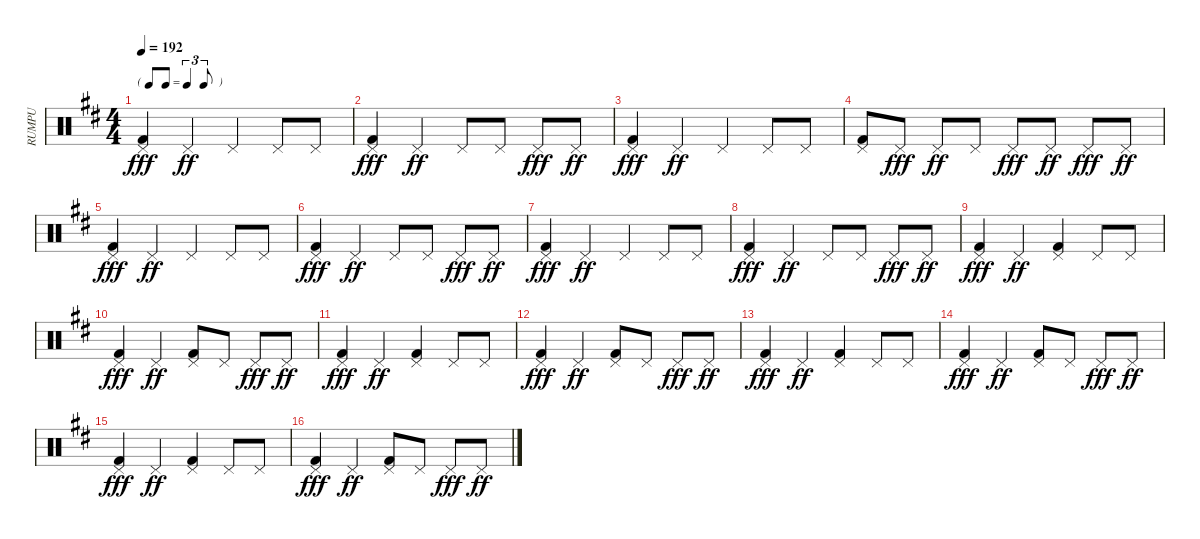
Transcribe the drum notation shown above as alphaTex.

\track ("RUMPU" "RUMPU") {instrument percussion}
\staff {score}
\articulation defaults
\ts (4 4)
\tf triplet8th
\tempo 192
\clef neutral
\ks d
("Pedal Hi-Hat (hit)" "Kick (hit) 2").4{dy fff} "Pedal Hi-Hat (hit)".4{dy ff} "Pedal Hi-Hat (hit)".4 "Pedal Hi-Hat (hit)".8 "Pedal Hi-Hat (hit)".8 |
("Pedal Hi-Hat (hit)" "Kick (hit) 2").4{dy fff} "Pedal Hi-Hat (hit)".4{dy ff} "Pedal Hi-Hat (hit)".8 "Pedal Hi-Hat (hit)".8 "Pedal Hi-Hat (hit)".8{dy fff} "Pedal Hi-Hat (hit)".8{dy ff} |
("Pedal Hi-Hat (hit)" "Kick (hit) 2").4{dy fff} "Pedal Hi-Hat (hit)".4{dy ff} "Pedal Hi-Hat (hit)".4 "Pedal Hi-Hat (hit)".8 "Pedal Hi-Hat (hit)".8 |
("Pedal Hi-Hat (hit)" "Kick (hit) 2").8 "Pedal Hi-Hat (hit)".8{dy fff} "Pedal Hi-Hat (hit)".8{dy ff} "Pedal Hi-Hat (hit)".8 "Pedal Hi-Hat (hit)".8{dy fff} "Pedal Hi-Hat (hit)".8{dy ff} "Pedal Hi-Hat (hit)".8{dy fff} "Pedal Hi-Hat (hit)".8{dy ff} |
("Pedal Hi-Hat (hit)" "Kick (hit) 2").4{dy fff} "Pedal Hi-Hat (hit)".4{dy ff} "Pedal Hi-Hat (hit)".4 "Pedal Hi-Hat (hit)".8 "Pedal Hi-Hat (hit)".8 |
("Pedal Hi-Hat (hit)" "Kick (hit) 2").4{dy fff} "Pedal Hi-Hat (hit)".4{dy ff} "Pedal Hi-Hat (hit)".8 "Pedal Hi-Hat (hit)".8 "Pedal Hi-Hat (hit)".8{dy fff} "Pedal Hi-Hat (hit)".8{dy ff} |
("Pedal Hi-Hat (hit)" "Kick (hit) 2").4{dy fff} "Pedal Hi-Hat (hit)".4{dy ff} "Pedal Hi-Hat (hit)".4 "Pedal Hi-Hat (hit)".8 "Pedal Hi-Hat (hit)".8 |
("Pedal Hi-Hat (hit)" "Kick (hit) 2").4{dy fff} "Pedal Hi-Hat (hit)".4{dy ff} "Pedal Hi-Hat (hit)".8 "Pedal Hi-Hat (hit)".8 "Pedal Hi-Hat (hit)".8{dy fff} "Pedal Hi-Hat (hit)".8{dy ff} |
("Pedal Hi-Hat (hit)" "Kick (hit) 2").4{dy fff} "Pedal Hi-Hat (hit)".4{dy ff} ("Pedal Hi-Hat (hit)" "Kick (hit) 2").4 "Pedal Hi-Hat (hit)".8 "Pedal Hi-Hat (hit)".8 |
("Pedal Hi-Hat (hit)" "Kick (hit) 2").4{dy fff} "Pedal Hi-Hat (hit)".4{dy ff} ("Pedal Hi-Hat (hit)" "Kick (hit) 2").8 "Pedal Hi-Hat (hit)".8 "Pedal Hi-Hat (hit)".8{dy fff} "Pedal Hi-Hat (hit)".8{dy ff} |
("Pedal Hi-Hat (hit)" "Kick (hit) 2").4{dy fff} "Pedal Hi-Hat (hit)".4{dy ff} ("Pedal Hi-Hat (hit)" "Kick (hit) 2").4 "Pedal Hi-Hat (hit)".8 "Pedal Hi-Hat (hit)".8 |
("Pedal Hi-Hat (hit)" "Kick (hit) 2").4{dy fff} "Pedal Hi-Hat (hit)".4{dy ff} ("Pedal Hi-Hat (hit)" "Kick (hit) 2").8 "Pedal Hi-Hat (hit)".8 "Pedal Hi-Hat (hit)".8{dy fff} "Pedal Hi-Hat (hit)".8{dy ff} |
("Pedal Hi-Hat (hit)" "Kick (hit) 2").4{dy fff} "Pedal Hi-Hat (hit)".4{dy ff} ("Pedal Hi-Hat (hit)" "Kick (hit) 2").4 "Pedal Hi-Hat (hit)".8 "Pedal Hi-Hat (hit)".8 |
("Pedal Hi-Hat (hit)" "Kick (hit) 2").4{dy fff} "Pedal Hi-Hat (hit)".4{dy ff} ("Pedal Hi-Hat (hit)" "Kick (hit) 2").8 "Pedal Hi-Hat (hit)".8 "Pedal Hi-Hat (hit)".8{dy fff} "Pedal Hi-Hat (hit)".8{dy ff} |
("Pedal Hi-Hat (hit)" "Kick (hit) 2").4{dy fff} "Pedal Hi-Hat (hit)".4{dy ff} ("Pedal Hi-Hat (hit)" "Kick (hit) 2").4 "Pedal Hi-Hat (hit)".8 "Pedal Hi-Hat (hit)".8 |
("Pedal Hi-Hat (hit)" "Kick (hit) 2").4{dy fff} "Pedal Hi-Hat (hit)".4{dy ff} ("Pedal Hi-Hat (hit)" "Kick (hit) 2").8 "Pedal Hi-Hat (hit)".8 "Pedal Hi-Hat (hit)".8{dy fff} "Pedal Hi-Hat (hit)".8{dy ff}
